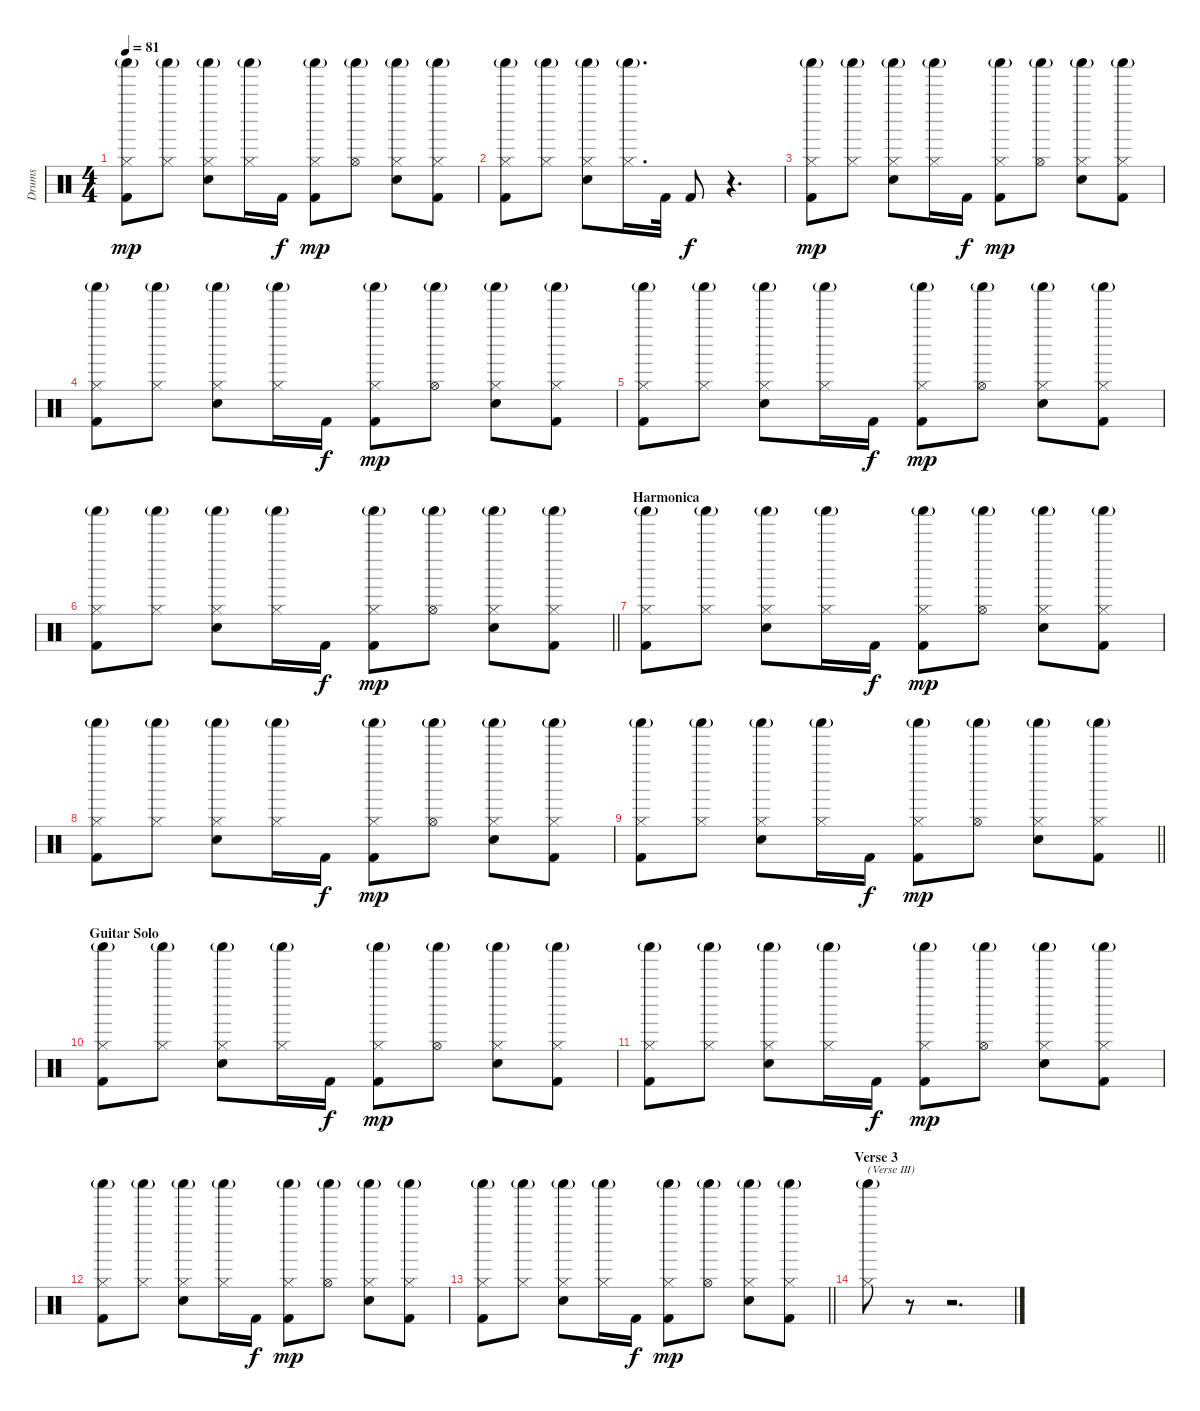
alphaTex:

\track ("Drums" "Drums") {instrument percussion}
\staff {score}
\articulation defaults
\ts (4 4)
\tempo 81
\clef neutral
\ks c
("Hi-Hat (closed)" "Shaker (hit)"{g} "Kick (hit) 2").8{dy mp} ("Hi-Hat (closed)" "Shaker (hit)"{g}).8 ("Hi-Hat (closed)" "Shaker (hit)"{g} "Snare (hit) 2").8 ("Hi-Hat (closed)" "Shaker (hit)"{g}).16 "Kick (hit) 2".16{dy f} ("Hi-Hat (closed)" "Shaker (hit)"{g} "Kick (hit) 2").8{dy mp} ("Hi-Hat (open)" "Shaker (hit)"{g}).8 ("Hi-Hat (closed)" "Shaker (hit)"{g} "Snare (hit) 2").8 ("Hi-Hat (closed)" "Shaker (hit)"{g} "Kick (hit) 2").8 |
("Hi-Hat (closed)" "Shaker (hit)"{g} "Kick (hit) 2").8 ("Hi-Hat (closed)" "Shaker (hit)"{g}).8 ("Hi-Hat (closed)" "Shaker (hit)"{g} "Snare (hit) 2").8 ("Hi-Hat (closed)" "Shaker (hit)"{g}).16{d} "Kick (hit) 2".32 "Kick (hit) 2".8{dy f} r.4{d} |
("Hi-Hat (closed)" "Shaker (hit)"{g} "Kick (hit) 2").8{dy mp} ("Hi-Hat (closed)" "Shaker (hit)"{g}).8 ("Hi-Hat (closed)" "Shaker (hit)"{g} "Snare (hit) 2").8 ("Hi-Hat (closed)" "Shaker (hit)"{g}).16 "Kick (hit) 2".16{dy f} ("Hi-Hat (closed)" "Shaker (hit)"{g} "Kick (hit) 2").8{dy mp} ("Hi-Hat (open)" "Shaker (hit)"{g}).8 ("Hi-Hat (closed)" "Shaker (hit)"{g} "Snare (hit) 2").8 ("Hi-Hat (closed)" "Shaker (hit)"{g} "Kick (hit) 2").8 |
("Hi-Hat (closed)" "Shaker (hit)"{g} "Kick (hit) 2").8 ("Hi-Hat (closed)" "Shaker (hit)"{g}).8 ("Hi-Hat (closed)" "Shaker (hit)"{g} "Snare (hit) 2").8 ("Hi-Hat (closed)" "Shaker (hit)"{g}).16 "Kick (hit) 2".16{dy f} ("Hi-Hat (closed)" "Shaker (hit)"{g} "Kick (hit) 2").8{dy mp} ("Hi-Hat (open)" "Shaker (hit)"{g}).8 ("Hi-Hat (closed)" "Shaker (hit)"{g} "Snare (hit) 2").8 ("Hi-Hat (closed)" "Shaker (hit)"{g} "Kick (hit) 2").8 |
("Hi-Hat (closed)" "Shaker (hit)"{g} "Kick (hit) 2").8 ("Hi-Hat (closed)" "Shaker (hit)"{g}).8 ("Hi-Hat (closed)" "Shaker (hit)"{g} "Snare (hit) 2").8 ("Hi-Hat (closed)" "Shaker (hit)"{g}).16 "Kick (hit) 2".16{dy f} ("Hi-Hat (closed)" "Shaker (hit)"{g} "Kick (hit) 2").8{dy mp} ("Hi-Hat (open)" "Shaker (hit)"{g}).8 ("Hi-Hat (closed)" "Shaker (hit)"{g} "Snare (hit) 2").8 ("Hi-Hat (closed)" "Shaker (hit)"{g} "Kick (hit) 2").8 |
\barLineRight lightlight
("Hi-Hat (closed)" "Shaker (hit)"{g} "Kick (hit) 2").8 ("Hi-Hat (closed)" "Shaker (hit)"{g}).8 ("Hi-Hat (closed)" "Shaker (hit)"{g} "Snare (hit) 2").8 ("Hi-Hat (closed)" "Shaker (hit)"{g}).16 "Kick (hit) 2".16{dy f} ("Hi-Hat (closed)" "Shaker (hit)"{g} "Kick (hit) 2").8{dy mp} ("Hi-Hat (open)" "Shaker (hit)"{g}).8 ("Hi-Hat (closed)" "Shaker (hit)"{g} "Snare (hit) 2").8 ("Hi-Hat (closed)" "Shaker (hit)"{g} "Kick (hit) 2").8 |
\section ("" "Harmonica")
("Hi-Hat (closed)" "Shaker (hit)"{g} "Kick (hit) 2").8 ("Hi-Hat (closed)" "Shaker (hit)"{g}).8 ("Hi-Hat (closed)" "Shaker (hit)"{g} "Snare (hit) 2").8 ("Hi-Hat (closed)" "Shaker (hit)"{g}).16 "Kick (hit) 2".16{dy f} ("Hi-Hat (closed)" "Shaker (hit)"{g} "Kick (hit) 2").8{dy mp} ("Hi-Hat (open)" "Shaker (hit)"{g}).8 ("Hi-Hat (closed)" "Shaker (hit)"{g} "Snare (hit) 2").8 ("Hi-Hat (closed)" "Shaker (hit)"{g} "Kick (hit) 2").8 |
("Hi-Hat (closed)" "Shaker (hit)"{g} "Kick (hit) 2").8 ("Hi-Hat (closed)" "Shaker (hit)"{g}).8 ("Hi-Hat (closed)" "Shaker (hit)"{g} "Snare (hit) 2").8 ("Hi-Hat (closed)" "Shaker (hit)"{g}).16 "Kick (hit) 2".16{dy f} ("Hi-Hat (closed)" "Shaker (hit)"{g} "Kick (hit) 2").8{dy mp} ("Hi-Hat (open)" "Shaker (hit)"{g}).8 ("Hi-Hat (closed)" "Shaker (hit)"{g} "Snare (hit) 2").8 ("Hi-Hat (closed)" "Shaker (hit)"{g} "Kick (hit) 2").8 |
\barLineRight lightlight
("Hi-Hat (closed)" "Shaker (hit)"{g} "Kick (hit) 2").8 ("Hi-Hat (closed)" "Shaker (hit)"{g}).8 ("Hi-Hat (closed)" "Shaker (hit)"{g} "Snare (hit) 2").8 ("Hi-Hat (closed)" "Shaker (hit)"{g}).16 "Kick (hit) 2".16{dy f} ("Hi-Hat (closed)" "Shaker (hit)"{g} "Kick (hit) 2").8{dy mp} ("Hi-Hat (open)" "Shaker (hit)"{g}).8 ("Hi-Hat (closed)" "Shaker (hit)"{g} "Snare (hit) 2").8 ("Hi-Hat (closed)" "Shaker (hit)"{g} "Kick (hit) 2").8 |
\section ("" "Guitar Solo")
("Hi-Hat (closed)" "Shaker (hit)"{g} "Kick (hit) 2").8 ("Hi-Hat (closed)" "Shaker (hit)"{g}).8 ("Hi-Hat (closed)" "Shaker (hit)"{g} "Snare (hit) 2").8 ("Hi-Hat (closed)" "Shaker (hit)"{g}).16 "Kick (hit) 2".16{dy f} ("Hi-Hat (closed)" "Shaker (hit)"{g} "Kick (hit) 2").8{dy mp} ("Hi-Hat (open)" "Shaker (hit)"{g}).8 ("Hi-Hat (closed)" "Shaker (hit)"{g} "Snare (hit) 2").8 ("Hi-Hat (closed)" "Shaker (hit)"{g} "Kick (hit) 2").8 |
("Hi-Hat (closed)" "Shaker (hit)"{g} "Kick (hit) 2").8 ("Hi-Hat (closed)" "Shaker (hit)"{g}).8 ("Hi-Hat (closed)" "Shaker (hit)"{g} "Snare (hit) 2").8 ("Hi-Hat (closed)" "Shaker (hit)"{g}).16 "Kick (hit) 2".16{dy f} ("Hi-Hat (closed)" "Shaker (hit)"{g} "Kick (hit) 2").8{dy mp} ("Hi-Hat (open)" "Shaker (hit)"{g}).8 ("Hi-Hat (closed)" "Shaker (hit)"{g} "Snare (hit) 2").8 ("Hi-Hat (closed)" "Shaker (hit)"{g} "Kick (hit) 2").8 |
("Hi-Hat (closed)" "Shaker (hit)"{g} "Kick (hit) 2").8 ("Hi-Hat (closed)" "Shaker (hit)"{g}).8 ("Hi-Hat (closed)" "Shaker (hit)"{g} "Snare (hit) 2").8 ("Hi-Hat (closed)" "Shaker (hit)"{g}).16 "Kick (hit) 2".16{dy f} ("Hi-Hat (closed)" "Shaker (hit)"{g} "Kick (hit) 2").8{dy mp} ("Hi-Hat (open)" "Shaker (hit)"{g}).8 ("Hi-Hat (closed)" "Shaker (hit)"{g} "Snare (hit) 2").8 ("Hi-Hat (closed)" "Shaker (hit)"{g} "Kick (hit) 2").8 |
\barLineRight lightlight
("Hi-Hat (closed)" "Shaker (hit)"{g} "Kick (hit) 2").8 ("Hi-Hat (closed)" "Shaker (hit)"{g}).8 ("Hi-Hat (closed)" "Shaker (hit)"{g} "Snare (hit) 2").8 ("Hi-Hat (closed)" "Shaker (hit)"{g}).16 "Kick (hit) 2".16{dy f} ("Hi-Hat (closed)" "Shaker (hit)"{g} "Kick (hit) 2").8{dy mp} ("Hi-Hat (open)" "Shaker (hit)"{g}).8 ("Hi-Hat (closed)" "Shaker (hit)"{g} "Snare (hit) 2").8 ("Hi-Hat (closed)" "Shaker (hit)"{g} "Kick (hit) 2").8 |
\section ("" "Verse 3")
("Hi-Hat (closed)" "Shaker (hit)"{g}).8{txt "(Verse III)"} r.8 r.2{d}
